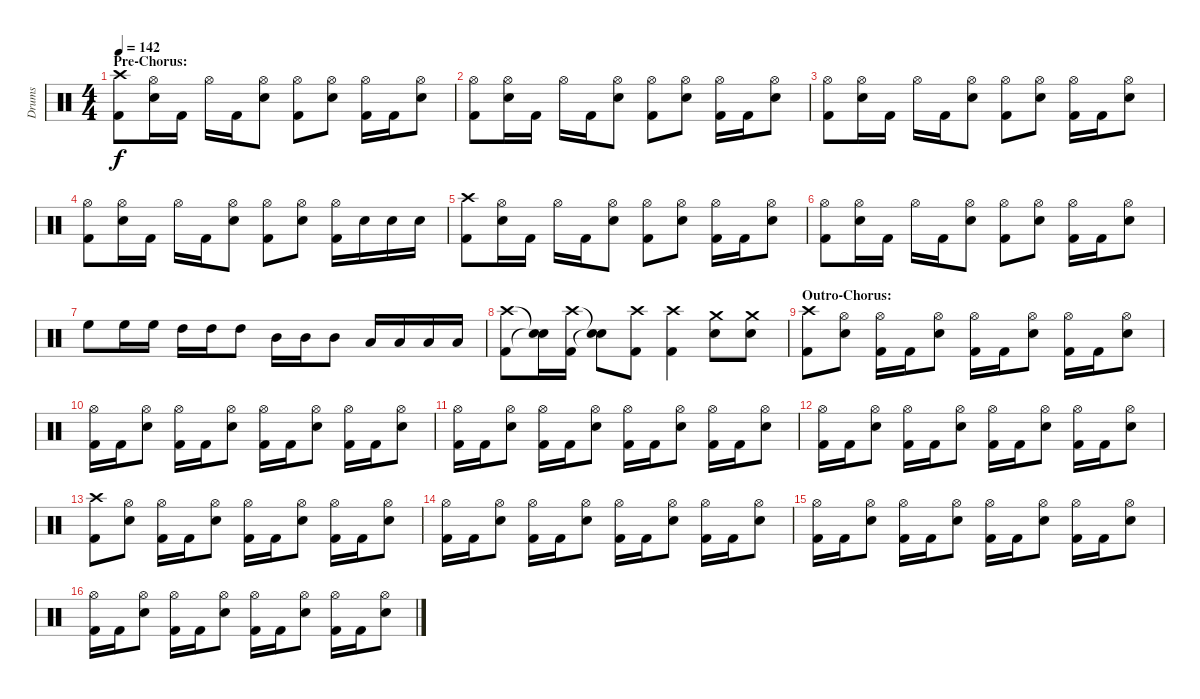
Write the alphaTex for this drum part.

\track ("Drums" "Drums") {instrument percussion}
\staff {score}
\articulation defaults
\ts (4 4)
\section ("" "Pre-Chorus:")
\tempo 142
\clef neutral
\ks c
("Crash high (hit)" "Kick (hit) 2").8{dy f} ("Hi-Hat (open)" "Electric Snare (hit)").16 "Kick (hit) 2".16 "Hi-Hat (open)".16 "Kick (hit) 2".16 ("Hi-Hat (open)" "Electric Snare (hit)").8 ("Hi-Hat (open)" "Kick (hit) 2").8 ("Hi-Hat (open)" "Electric Snare (hit)").8 ("Hi-Hat (open)" "Kick (hit) 2").16 "Kick (hit) 2".16 ("Hi-Hat (open)" "Electric Snare (hit)").8 |
("Hi-Hat (open)" "Kick (hit) 2").8 ("Hi-Hat (open)" "Electric Snare (hit)").16 "Kick (hit) 2".16 "Hi-Hat (open)".16 "Kick (hit) 2".16 ("Hi-Hat (open)" "Electric Snare (hit)").8 ("Hi-Hat (open)" "Kick (hit) 2").8 ("Hi-Hat (open)" "Electric Snare (hit)").8 ("Hi-Hat (open)" "Kick (hit) 2").16 "Kick (hit) 2".16 ("Hi-Hat (open)" "Electric Snare (hit)").8 |
("Hi-Hat (open)" "Kick (hit) 2").8 ("Hi-Hat (open)" "Electric Snare (hit)").16 "Kick (hit) 2".16 "Hi-Hat (open)".16 "Kick (hit) 2".16 ("Hi-Hat (open)" "Electric Snare (hit)").8 ("Hi-Hat (open)" "Kick (hit) 2").8 ("Hi-Hat (open)" "Electric Snare (hit)").8 ("Hi-Hat (open)" "Kick (hit) 2").16 "Kick (hit) 2".16 ("Hi-Hat (open)" "Electric Snare (hit)").8 |
("Hi-Hat (open)" "Kick (hit) 2").8 ("Hi-Hat (open)" "Electric Snare (hit)").16 "Kick (hit) 2".16 "Hi-Hat (open)".16 "Kick (hit) 2".16 ("Hi-Hat (open)" "Electric Snare (hit)").8 ("Hi-Hat (open)" "Kick (hit) 2").8 ("Hi-Hat (open)" "Electric Snare (hit)").8 ("Hi-Hat (open)" "Kick (hit) 2").16 "Electric Snare (hit)".16 "Electric Snare (hit)".16 "Electric Snare (hit)".16 |
("Crash high (hit)" "Kick (hit) 2").8 ("Hi-Hat (open)" "Electric Snare (hit)").16 "Kick (hit) 2".16 "Hi-Hat (open)".16 "Kick (hit) 2".16 ("Hi-Hat (open)" "Electric Snare (hit)").8 ("Hi-Hat (open)" "Kick (hit) 2").8 ("Hi-Hat (open)" "Electric Snare (hit)").8 ("Hi-Hat (open)" "Kick (hit) 2").16 "Kick (hit) 2".16 ("Hi-Hat (open)" "Electric Snare (hit)").8 |
("Hi-Hat (open)" "Kick (hit) 2").8 ("Hi-Hat (open)" "Electric Snare (hit)").16 "Kick (hit) 2".16 "Hi-Hat (open)".16 "Kick (hit) 2".16 ("Hi-Hat (open)" "Electric Snare (hit)").8 ("Hi-Hat (open)" "Kick (hit) 2").8 ("Hi-Hat (open)" "Electric Snare (hit)").8 ("Hi-Hat (open)" "Kick (hit) 2").16 "Kick (hit) 2".16 ("Hi-Hat (open)" "Electric Snare (hit)").8 |
"High Floor Tom (hit)".8 "High Floor Tom (hit)".16 "High Floor Tom (hit)".16 "High Tom (hit)".16 "High Tom (hit)".16 "High Tom (hit)".8 "Mid Tom (hit)".16 "Mid Tom (hit)".16 "Mid Tom (hit)".8 "Low Tom (hit)".16 "Low Tom (hit)".16 "Low Tom (hit)".16 "Low Tom (hit)".16 |
("Crash high (hit)" "Kick (hit) 2").8 ("Snare (hit)"{t} "Snare (hit)"{t}).16 ("Crash high (hit)" "Kick (hit) 2").16 ("Snare (hit)"{t} "Snare (hit)"{t}).8 ("Crash high (hit)" "Kick (hit) 2").8 ("Crash high (hit)" "Kick (hit) 2").4 ("Crash medium (hit)" "Electric Snare (hit)").8 ("Crash medium (hit)" "Electric Snare (hit)").8 |
\section ("" "Outro-Chorus:")
("Crash high (hit)" "Kick (hit) 2").8 ("Hi-Hat (open)" "Electric Snare (hit)").8 ("Hi-Hat (open)" "Kick (hit) 2").16 "Kick (hit) 2".16 ("Hi-Hat (open)" "Electric Snare (hit)").8 ("Hi-Hat (open)" "Kick (hit) 2").16 "Kick (hit) 2".16 ("Hi-Hat (open)" "Electric Snare (hit)").8 ("Hi-Hat (open)" "Kick (hit) 2").16 "Kick (hit) 2".16 ("Hi-Hat (open)" "Electric Snare (hit)").8 |
("Hi-Hat (open)" "Kick (hit) 2").16 "Kick (hit) 2".16 ("Hi-Hat (open)" "Electric Snare (hit)").8 ("Hi-Hat (open)" "Kick (hit) 2").16 "Kick (hit) 2".16 ("Hi-Hat (open)" "Electric Snare (hit)").8 ("Hi-Hat (open)" "Kick (hit) 2").16 "Kick (hit) 2".16 ("Hi-Hat (open)" "Electric Snare (hit)").8 ("Hi-Hat (open)" "Kick (hit) 2").16 "Kick (hit) 2".16 ("Hi-Hat (open)" "Electric Snare (hit)").8 |
("Hi-Hat (open)" "Kick (hit) 2").16 "Kick (hit) 2".16 ("Hi-Hat (open)" "Electric Snare (hit)").8 ("Hi-Hat (open)" "Kick (hit) 2").16 "Kick (hit) 2".16 ("Hi-Hat (open)" "Electric Snare (hit)").8 ("Hi-Hat (open)" "Kick (hit) 2").16 "Kick (hit) 2".16 ("Hi-Hat (open)" "Electric Snare (hit)").8 ("Hi-Hat (open)" "Kick (hit) 2").16 "Kick (hit) 2".16 ("Hi-Hat (open)" "Electric Snare (hit)").8 |
("Hi-Hat (open)" "Kick (hit) 2").16 "Kick (hit) 2".16 ("Hi-Hat (open)" "Electric Snare (hit)").8 ("Hi-Hat (open)" "Kick (hit) 2").16 "Kick (hit) 2".16 ("Hi-Hat (open)" "Electric Snare (hit)").8 ("Hi-Hat (open)" "Kick (hit) 2").16 "Kick (hit) 2".16 ("Hi-Hat (open)" "Electric Snare (hit)").8 ("Hi-Hat (open)" "Kick (hit) 2").16 "Kick (hit) 2".16 ("Hi-Hat (open)" "Electric Snare (hit)").8 |
("Crash high (hit)" "Kick (hit) 2").8 ("Hi-Hat (open)" "Electric Snare (hit)").8 ("Hi-Hat (open)" "Kick (hit) 2").16 "Kick (hit) 2".16 ("Hi-Hat (open)" "Electric Snare (hit)").8 ("Hi-Hat (open)" "Kick (hit) 2").16 "Kick (hit) 2".16 ("Hi-Hat (open)" "Electric Snare (hit)").8 ("Hi-Hat (open)" "Kick (hit) 2").16 "Kick (hit) 2".16 ("Hi-Hat (open)" "Electric Snare (hit)").8 |
("Hi-Hat (open)" "Kick (hit) 2").16 "Kick (hit) 2".16 ("Hi-Hat (open)" "Electric Snare (hit)").8 ("Hi-Hat (open)" "Kick (hit) 2").16 "Kick (hit) 2".16 ("Hi-Hat (open)" "Electric Snare (hit)").8 ("Hi-Hat (open)" "Kick (hit) 2").16 "Kick (hit) 2".16 ("Hi-Hat (open)" "Electric Snare (hit)").8 ("Hi-Hat (open)" "Kick (hit) 2").16 "Kick (hit) 2".16 ("Hi-Hat (open)" "Electric Snare (hit)").8 |
("Hi-Hat (open)" "Kick (hit) 2").16 "Kick (hit) 2".16 ("Hi-Hat (open)" "Electric Snare (hit)").8 ("Hi-Hat (open)" "Kick (hit) 2").16 "Kick (hit) 2".16 ("Hi-Hat (open)" "Electric Snare (hit)").8 ("Hi-Hat (open)" "Kick (hit) 2").16 "Kick (hit) 2".16 ("Hi-Hat (open)" "Electric Snare (hit)").8 ("Hi-Hat (open)" "Kick (hit) 2").16 "Kick (hit) 2".16 ("Hi-Hat (open)" "Electric Snare (hit)").8 |
("Hi-Hat (open)" "Kick (hit) 2").16 "Kick (hit) 2".16 ("Hi-Hat (open)" "Electric Snare (hit)").8 ("Hi-Hat (open)" "Kick (hit) 2").16 "Kick (hit) 2".16 ("Hi-Hat (open)" "Electric Snare (hit)").8 ("Hi-Hat (open)" "Kick (hit) 2").16 "Kick (hit) 2".16 ("Hi-Hat (open)" "Electric Snare (hit)").8 ("Hi-Hat (open)" "Kick (hit) 2").16 "Kick (hit) 2".16 ("Hi-Hat (open)" "Electric Snare (hit)").8
